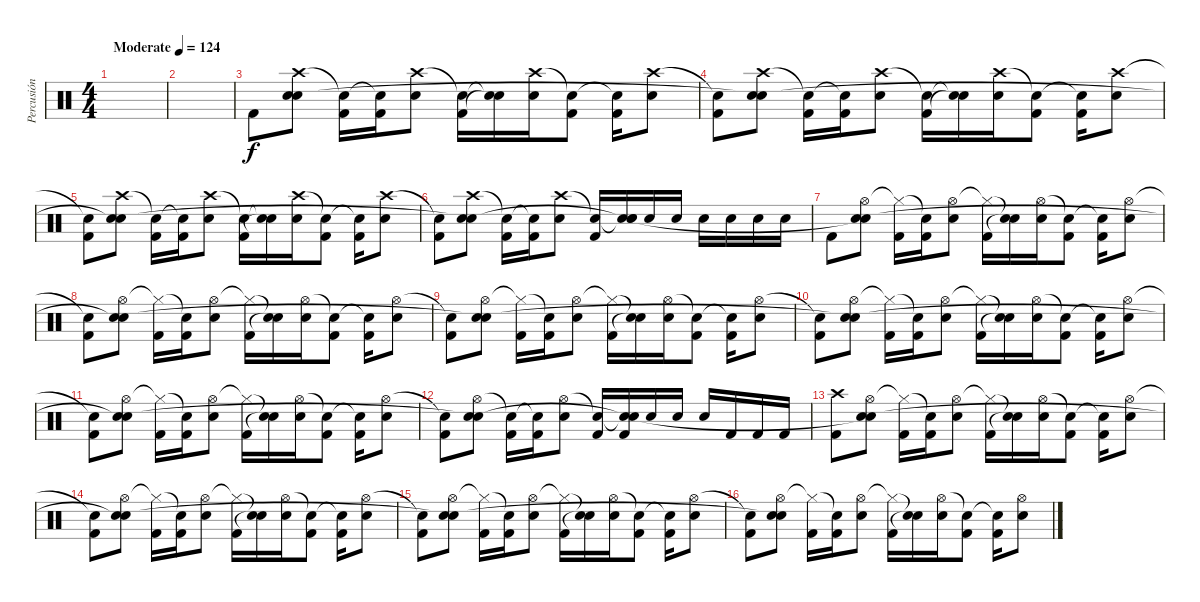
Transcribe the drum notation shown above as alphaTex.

\track ("Percusión" "Percusión") {instrument percussion}
\staff {score}
\articulation defaults
\ts (4 4)
\tempo (124 "Moderate")
\clef neutral
\ks c
|
|
"Kick (hit) 2".8 ("Crash high (hit)" "Snare (hit) 2" "Snare (hit)").8 ("Snare (hit)"{t} "Kick (hit) 2").16 ("Snare (hit)"{t} "Kick (hit) 2").16 ("Crash high (hit)" "Snare (hit) 2").8 ("Snare (hit)"{t} "Kick (hit) 2").16 ("Snare (hit)"{t} "Snare (hit)"{t}).16 ("Crash high (hit)" "Snare (hit) 2").16 ("Snare (hit)"{t} "Kick (hit) 2").8 ("Snare (hit)"{t} "Kick (hit) 2").16 ("Crash high (hit)" "Snare (hit) 2").8 |
("Snare (hit)"{t} "Kick (hit) 2").8 ("Crash high (hit)" "Snare (hit) 2" "Snare (hit)"{t}).8 ("Snare (hit)"{t} "Kick (hit) 2").16 ("Snare (hit)"{t} "Kick (hit) 2").16 ("Crash high (hit)" "Snare (hit) 2").8 ("Snare (hit)"{t} "Kick (hit) 2").16 ("Snare (hit)"{t} "Snare (hit)"{t}).16 ("Crash high (hit)" "Snare (hit) 2").16 ("Snare (hit)"{t} "Kick (hit) 2").8 ("Snare (hit)"{t} "Kick (hit) 2").16 ("Crash high (hit)" "Snare (hit) 2").8 |
("Snare (hit)"{t} "Kick (hit) 2").8 ("Crash high (hit)" "Snare (hit) 2" "Snare (hit)"{t}).8 ("Snare (hit)"{t} "Kick (hit) 2").16 ("Snare (hit)"{t} "Kick (hit) 2").16 ("Crash high (hit)" "Snare (hit) 2").8 ("Snare (hit)"{t} "Kick (hit) 2").16 ("Snare (hit)"{t} "Snare (hit)"{t}).16 ("Crash high (hit)" "Snare (hit) 2").16 ("Snare (hit)"{t} "Kick (hit) 2").8 ("Snare (hit)"{t} "Kick (hit) 2").16 ("Crash high (hit)" "Snare (hit) 2").8 |
("Snare (hit)"{t} "Kick (hit) 2").8 ("Crash high (hit)" "Snare (hit) 2" "Snare (hit)"{t}).8 ("Snare (hit)"{t} "Kick (hit) 2").16 ("Snare (hit)"{t} "Kick (hit) 2").16 ("Crash high (hit)" "Snare (hit) 2").8 ("Snare (hit)"{t} "Kick (hit) 2").16 ("Snare (hit)"{t} "Snare (hit) 2" "Snare (hit)"{t}).16 "Snare (hit) 2".16 "Snare (hit) 2".16 "Snare (hit) 2".16 "Snare (hit) 2".16 "Snare (hit) 2".16 "Snare (hit) 2".16 |
"Kick (hit) 2".8 ("Hi-Hat (open)" "Snare (hit) 2" "Snare (hit)"{t}).8 ("Hi-Hat (closed)"{t} "Kick (hit) 2").16 ("Snare (hit)"{t} "Kick (hit) 2").16 ("Hi-Hat (open)" "Snare (hit) 2").8 ("Hi-Hat (closed)"{t} "Kick (hit) 2").16 ("Snare (hit)"{t} "Snare (hit)"{t}).16 ("Hi-Hat (open)" "Snare (hit) 2").16 ("Snare (hit)"{t} "Kick (hit) 2").8 ("Snare (hit)"{t} "Kick (hit) 2").16 ("Hi-Hat (open)" "Snare (hit) 2").8 |
("Snare (hit)"{t} "Kick (hit) 2").8 ("Hi-Hat (open)" "Snare (hit) 2" "Snare (hit)"{t}).8 ("Hi-Hat (closed)"{t} "Kick (hit) 2").16 ("Snare (hit)"{t} "Kick (hit) 2").16 ("Hi-Hat (open)" "Snare (hit) 2").8 ("Hi-Hat (closed)"{t} "Kick (hit) 2").16 ("Snare (hit)"{t} "Snare (hit)"{t}).16 ("Hi-Hat (open)" "Snare (hit) 2").16 ("Snare (hit)"{t} "Kick (hit) 2").8 ("Snare (hit)"{t} "Kick (hit) 2").16 ("Hi-Hat (open)" "Snare (hit) 2").8 |
("Snare (hit)"{t} "Kick (hit) 2").8 ("Hi-Hat (open)" "Snare (hit) 2" "Snare (hit)"{t}).8 ("Hi-Hat (closed)"{t} "Kick (hit) 2").16 ("Snare (hit)"{t} "Kick (hit) 2").16 ("Hi-Hat (open)" "Snare (hit) 2").8 ("Hi-Hat (closed)"{t} "Kick (hit) 2").16 ("Snare (hit)"{t} "Snare (hit)"{t}).16 ("Hi-Hat (open)" "Snare (hit) 2").16 ("Snare (hit)"{t} "Kick (hit) 2").8 ("Snare (hit)"{t} "Kick (hit) 2").16 ("Hi-Hat (open)" "Snare (hit) 2").8 |
("Snare (hit)"{t} "Kick (hit) 2").8 ("Hi-Hat (open)" "Snare (hit) 2" "Snare (hit)"{t}).8 ("Hi-Hat (closed)"{t} "Kick (hit) 2").16 ("Snare (hit)"{t} "Kick (hit) 2").16 ("Hi-Hat (open)" "Snare (hit) 2").8 ("Hi-Hat (closed)"{t} "Kick (hit) 2").16 ("Snare (hit)"{t} "Snare (hit)"{t}).16 ("Hi-Hat (open)" "Snare (hit) 2").16 ("Snare (hit)"{t} "Kick (hit) 2").8 ("Snare (hit)"{t} "Kick (hit) 2").16 ("Hi-Hat (open)" "Snare (hit) 2").8 |
("Snare (hit)"{t} "Kick (hit) 2").8 ("Hi-Hat (open)" "Snare (hit) 2" "Snare (hit)"{t}).8 ("Hi-Hat (closed)"{t} "Kick (hit) 2").16 ("Snare (hit)"{t} "Kick (hit) 2").16 ("Hi-Hat (open)" "Snare (hit) 2").8 ("Hi-Hat (closed)"{t} "Kick (hit) 2").16 ("Snare (hit)"{t} "Snare (hit)"{t}).16 ("Hi-Hat (open)" "Snare (hit) 2").16 ("Snare (hit)"{t} "Kick (hit) 2").8 ("Snare (hit)"{t} "Kick (hit) 2").16 ("Hi-Hat (open)" "Snare (hit) 2").8 |
("Snare (hit)"{t} "Kick (hit) 2").8 ("Hi-Hat (open)" "Snare (hit) 2" "Snare (hit)"{t}).8 ("Snare (hit)"{t} "Kick (hit) 2").16 ("Snare (hit)"{t} "Kick (hit) 2").16 ("Hi-Hat (open)" "Snare (hit) 2").8 ("Snare (hit)"{t} "Kick (hit) 2").16 ("Snare (hit)"{t} "Kick (hit) 2" "Snare (hit)"{t}).16 "Snare (hit) 2".16 "Snare (hit) 2".16 "Snare (hit) 2".16 "Kick (hit) 2".16 "Kick (hit) 2".16 "Kick (hit) 2".16 |
("Crash high (hit)" "Kick (hit) 2").8 ("Hi-Hat (open)" "Snare (hit) 2" "Snare (hit)"{t}).8 ("Hi-Hat (closed)"{t} "Kick (hit) 2").16 ("Snare (hit)"{t} "Kick (hit) 2").16 ("Hi-Hat (open)" "Snare (hit) 2").8 ("Hi-Hat (closed)"{t} "Kick (hit) 2").16 ("Snare (hit)"{t} "Snare (hit)"{t}).16 ("Hi-Hat (open)" "Snare (hit) 2").16 ("Snare (hit)"{t} "Kick (hit) 2").8 ("Snare (hit)"{t} "Kick (hit) 2").16 ("Hi-Hat (open)" "Snare (hit) 2").8 |
("Snare (hit)"{t} "Kick (hit) 2").8 ("Hi-Hat (open)" "Snare (hit) 2" "Snare (hit)"{t}).8 ("Hi-Hat (closed)"{t} "Kick (hit) 2").16 ("Snare (hit)"{t} "Kick (hit) 2").16 ("Hi-Hat (open)" "Snare (hit) 2").8 ("Hi-Hat (closed)"{t} "Kick (hit) 2").16 ("Snare (hit)"{t} "Snare (hit)"{t}).16 ("Hi-Hat (open)" "Snare (hit) 2").16 ("Snare (hit)"{t} "Kick (hit) 2").8 ("Snare (hit)"{t} "Kick (hit) 2").16 ("Hi-Hat (open)" "Snare (hit) 2").8 |
("Snare (hit)"{t} "Kick (hit) 2").8 ("Hi-Hat (open)" "Snare (hit) 2" "Snare (hit)"{t}).8 ("Hi-Hat (closed)"{t} "Kick (hit) 2").16 ("Snare (hit)"{t} "Kick (hit) 2").16 ("Hi-Hat (open)" "Snare (hit) 2").8 ("Hi-Hat (closed)"{t} "Kick (hit) 2").16 ("Snare (hit)"{t} "Snare (hit)"{t}).16 ("Hi-Hat (open)" "Snare (hit) 2").16 ("Snare (hit)"{t} "Kick (hit) 2").8 ("Snare (hit)"{t} "Kick (hit) 2").16 ("Hi-Hat (open)" "Snare (hit) 2").8 |
("Snare (hit)"{t} "Kick (hit) 2").8 ("Hi-Hat (open)" "Snare (hit) 2" "Snare (hit)"{t}).8 ("Hi-Hat (closed)"{t} "Kick (hit) 2").16 ("Snare (hit)"{t} "Kick (hit) 2").16 ("Hi-Hat (open)" "Snare (hit) 2").8 ("Hi-Hat (closed)"{t} "Kick (hit) 2").16 ("Snare (hit)"{t} "Snare (hit)"{t}).16 ("Hi-Hat (open)" "Snare (hit) 2").16 ("Snare (hit)"{t} "Kick (hit) 2").8 ("Snare (hit)"{t} "Kick (hit) 2").16 ("Hi-Hat (open)" "Snare (hit) 2").8
